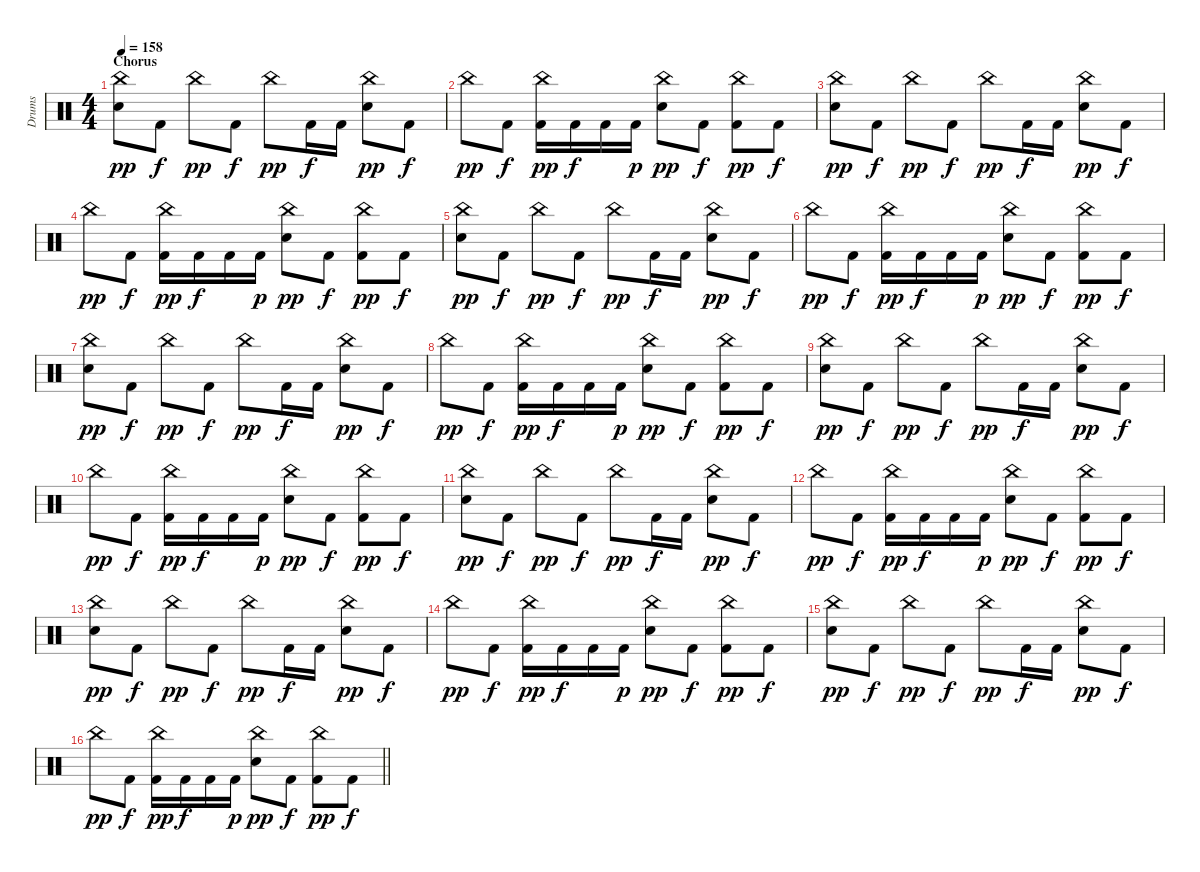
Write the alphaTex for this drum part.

\track ("Drums" "Drums") {instrument percussion}
\staff {score}
\articulation defaults
\ts (4 4)
\section ("" "Chorus")
\tempo 158
\clef neutral
\ks c
("China (hit)" "Snare (hit) 2").8{dy pp} "Kick (hit) 2".8{dy f} "China (hit)".8{dy pp} "Kick (hit) 2".8{dy f} "China (hit)".8{dy pp} "Kick (hit) 2".16{dy f} "Kick (hit) 2".16 ("China (hit)" "Snare (hit) 2").8{dy pp} "Kick (hit) 2".8{dy f} |
"China (hit)".8{dy pp} "Kick (hit) 2".8{dy f} ("China (hit)" "Kick (hit) 2").16{dy pp} "Kick (hit) 2".16{dy f} "Kick (hit) 2".16 "Kick (hit) 2".16{dy p} ("China (hit)" "Snare (hit) 2").8{dy pp} "Kick (hit) 2".8{dy f} ("China (hit)" "Kick (hit) 2").8{dy pp} "Kick (hit) 2".8{dy f} |
("China (hit)" "Snare (hit) 2").8{dy pp} "Kick (hit) 2".8{dy f} "China (hit)".8{dy pp} "Kick (hit) 2".8{dy f} "China (hit)".8{dy pp} "Kick (hit) 2".16{dy f} "Kick (hit) 2".16 ("China (hit)" "Snare (hit) 2").8{dy pp} "Kick (hit) 2".8{dy f} |
"China (hit)".8{dy pp} "Kick (hit) 2".8{dy f} ("China (hit)" "Kick (hit) 2").16{dy pp} "Kick (hit) 2".16{dy f} "Kick (hit) 2".16 "Kick (hit) 2".16{dy p} ("China (hit)" "Snare (hit) 2").8{dy pp} "Kick (hit) 2".8{dy f} ("China (hit)" "Kick (hit) 2").8{dy pp} "Kick (hit) 2".8{dy f} |
("China (hit)" "Snare (hit) 2").8{dy pp} "Kick (hit) 2".8{dy f} "China (hit)".8{dy pp} "Kick (hit) 2".8{dy f} "China (hit)".8{dy pp} "Kick (hit) 2".16{dy f} "Kick (hit) 2".16 ("China (hit)" "Snare (hit) 2").8{dy pp} "Kick (hit) 2".8{dy f} |
"China (hit)".8{dy pp} "Kick (hit) 2".8{dy f} ("China (hit)" "Kick (hit) 2").16{dy pp} "Kick (hit) 2".16{dy f} "Kick (hit) 2".16 "Kick (hit) 2".16{dy p} ("China (hit)" "Snare (hit) 2").8{dy pp} "Kick (hit) 2".8{dy f} ("China (hit)" "Kick (hit) 2").8{dy pp} "Kick (hit) 2".8{dy f} |
("China (hit)" "Snare (hit) 2").8{dy pp} "Kick (hit) 2".8{dy f} "China (hit)".8{dy pp} "Kick (hit) 2".8{dy f} "China (hit)".8{dy pp} "Kick (hit) 2".16{dy f} "Kick (hit) 2".16 ("China (hit)" "Snare (hit) 2").8{dy pp} "Kick (hit) 2".8{dy f} |
"China (hit)".8{dy pp} "Kick (hit) 2".8{dy f} ("China (hit)" "Kick (hit) 2").16{dy pp} "Kick (hit) 2".16{dy f} "Kick (hit) 2".16 "Kick (hit) 2".16{dy p} ("China (hit)" "Snare (hit) 2").8{dy pp} "Kick (hit) 2".8{dy f} ("China (hit)" "Kick (hit) 2").8{dy pp} "Kick (hit) 2".8{dy f} |
("China (hit)" "Snare (hit) 2").8{dy pp} "Kick (hit) 2".8{dy f} "China (hit)".8{dy pp} "Kick (hit) 2".8{dy f} "China (hit)".8{dy pp} "Kick (hit) 2".16{dy f} "Kick (hit) 2".16 ("China (hit)" "Snare (hit) 2").8{dy pp} "Kick (hit) 2".8{dy f} |
"China (hit)".8{dy pp} "Kick (hit) 2".8{dy f} ("China (hit)" "Kick (hit) 2").16{dy pp} "Kick (hit) 2".16{dy f} "Kick (hit) 2".16 "Kick (hit) 2".16{dy p} ("China (hit)" "Snare (hit) 2").8{dy pp} "Kick (hit) 2".8{dy f} ("China (hit)" "Kick (hit) 2").8{dy pp} "Kick (hit) 2".8{dy f} |
("China (hit)" "Snare (hit) 2").8{dy pp} "Kick (hit) 2".8{dy f} "China (hit)".8{dy pp} "Kick (hit) 2".8{dy f} "China (hit)".8{dy pp} "Kick (hit) 2".16{dy f} "Kick (hit) 2".16 ("China (hit)" "Snare (hit) 2").8{dy pp} "Kick (hit) 2".8{dy f} |
"China (hit)".8{dy pp} "Kick (hit) 2".8{dy f} ("China (hit)" "Kick (hit) 2").16{dy pp} "Kick (hit) 2".16{dy f} "Kick (hit) 2".16 "Kick (hit) 2".16{dy p} ("China (hit)" "Snare (hit) 2").8{dy pp} "Kick (hit) 2".8{dy f} ("China (hit)" "Kick (hit) 2").8{dy pp} "Kick (hit) 2".8{dy f} |
("China (hit)" "Snare (hit) 2").8{dy pp} "Kick (hit) 2".8{dy f} "China (hit)".8{dy pp} "Kick (hit) 2".8{dy f} "China (hit)".8{dy pp} "Kick (hit) 2".16{dy f} "Kick (hit) 2".16 ("China (hit)" "Snare (hit) 2").8{dy pp} "Kick (hit) 2".8{dy f} |
"China (hit)".8{dy pp} "Kick (hit) 2".8{dy f} ("China (hit)" "Kick (hit) 2").16{dy pp} "Kick (hit) 2".16{dy f} "Kick (hit) 2".16 "Kick (hit) 2".16{dy p} ("China (hit)" "Snare (hit) 2").8{dy pp} "Kick (hit) 2".8{dy f} ("China (hit)" "Kick (hit) 2").8{dy pp} "Kick (hit) 2".8{dy f} |
("China (hit)" "Snare (hit) 2").8{dy pp} "Kick (hit) 2".8{dy f} "China (hit)".8{dy pp} "Kick (hit) 2".8{dy f} "China (hit)".8{dy pp} "Kick (hit) 2".16{dy f} "Kick (hit) 2".16 ("China (hit)" "Snare (hit) 2").8{dy pp} "Kick (hit) 2".8{dy f} |
\barLineRight lightlight "China (hit)".8{dy pp} "Kick (hit) 2".8{dy f}
("China (hit)" "Kick (hit) 2").16{dy pp} "Kick (hit) 2".16{dy f} "Kick (hit) 2".16 "Kick (hit) 2".16{dy p} ("China (hit)" "Snare (hit) 2").8{dy pp} "Kick (hit) 2".8{dy f} ("China (hit)" "Kick (hit) 2").8{dy pp} "Kick (hit) 2".8{dy f}
